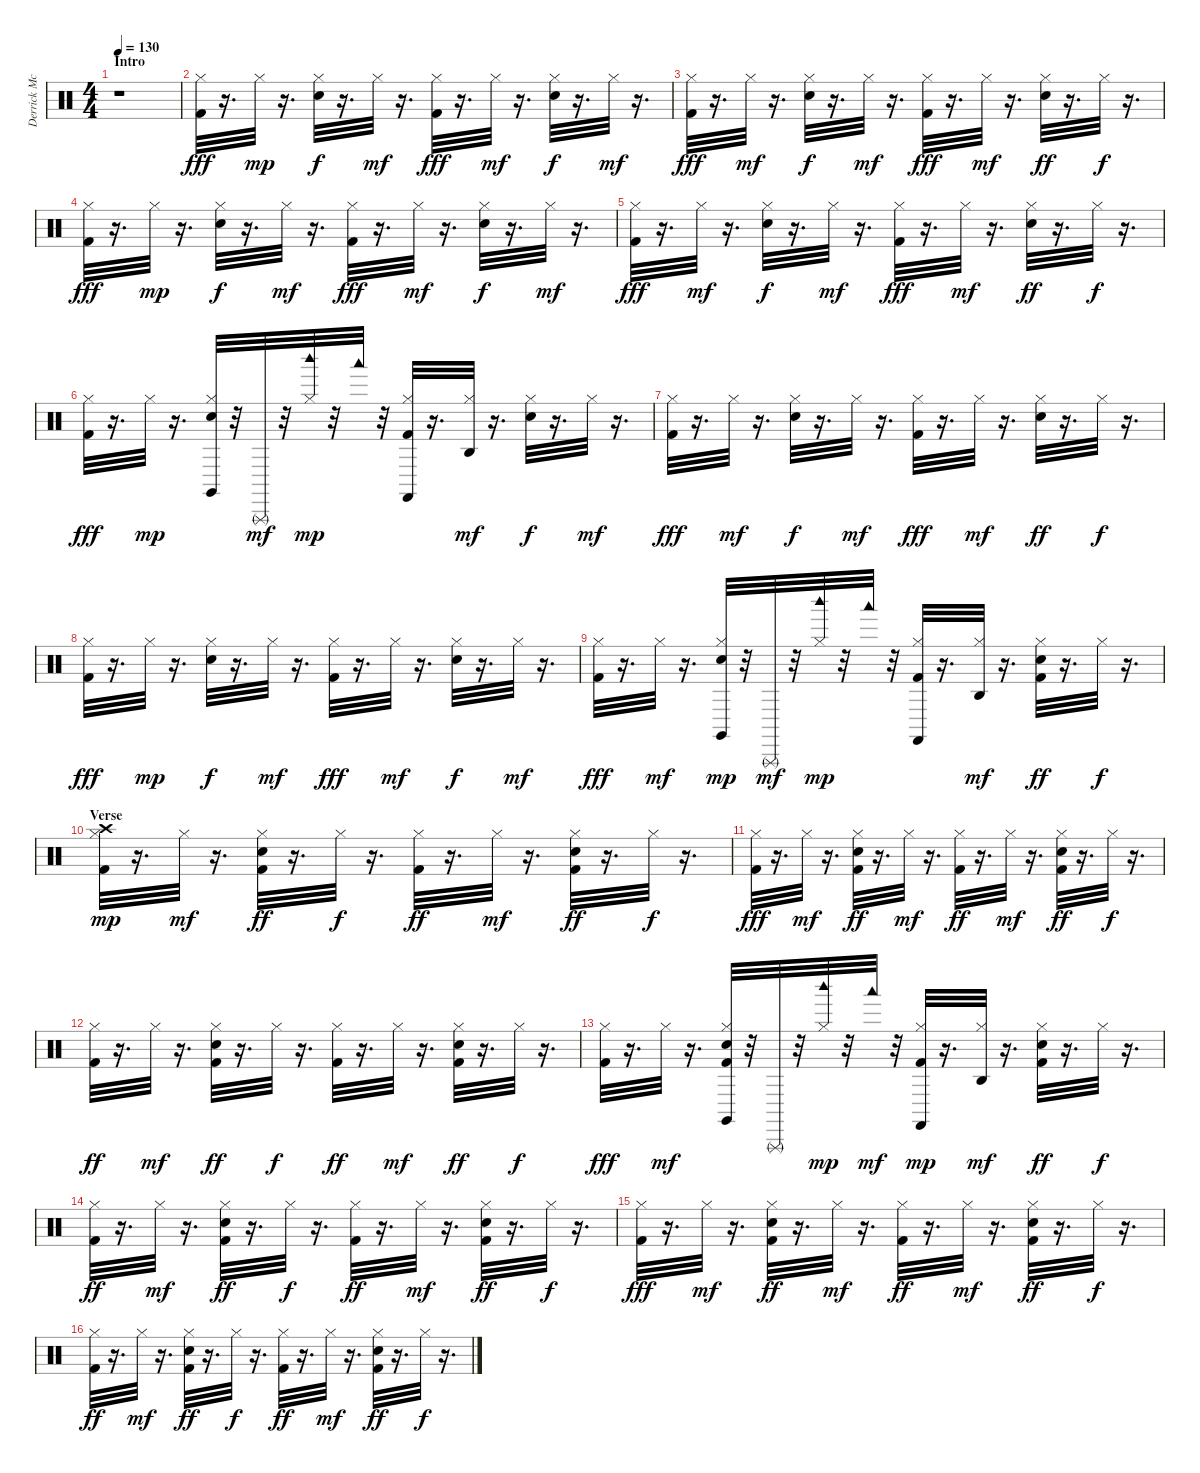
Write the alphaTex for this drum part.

\track ("Derrick McKenzie\\Sola Akingbola - Drums" "Derrick Mc") {instrument percussion}
\staff {score}
\articulation defaults
\ts (4 4)
\section ("" "Intro")
\tempo 130
\clef neutral
\ks c
r.1{dy fff} |
("Kick (hit) 2" "Hi-Hat (closed)").32 r.16{d} "Hi-Hat (closed)".32{dy mp} r.16{d} ("Electric Snare (hit)" "Hi-Hat (closed)").32{dy f} r.16{d} "Hi-Hat (closed)".32{dy mf} r.16{d} ("Kick (hit) 2" "Hi-Hat (closed)").32{dy fff} r.16{d} "Hi-Hat (closed)".32{dy mf} r.16{d} ("Electric Snare (hit)" "Hi-Hat (closed)").32{dy f} r.16{d} "Hi-Hat (closed)".32{dy mf} r.16{d} |
("Kick (hit) 2" "Hi-Hat (closed)").32{dy fff} r.16{d} "Hi-Hat (closed)".32{dy mf} r.16{d} ("Electric Snare (hit)" "Hi-Hat (closed)").32{dy f} r.16{d} "Hi-Hat (closed)".32{dy mf} r.16{d} ("Kick (hit) 2" "Hi-Hat (closed)").32{dy fff} r.16{d} "Hi-Hat (closed)".32{dy mf} r.16{d} ("Electric Snare (hit)" "Hi-Hat (closed)").32{dy ff} r.16{d} "Hi-Hat (closed)".32{dy f} r.16{d} |
("Kick (hit) 2" "Hi-Hat (closed)").32{dy fff} r.16{d} "Hi-Hat (closed)".32{dy mp} r.16{d} ("Electric Snare (hit)" "Hi-Hat (closed)").32{dy f} r.16{d} "Hi-Hat (closed)".32{dy mf} r.16{d} ("Kick (hit) 2" "Hi-Hat (closed)").32{dy fff} r.16{d} "Hi-Hat (closed)".32{dy mf} r.16{d} ("Electric Snare (hit)" "Hi-Hat (closed)").32{dy f} r.16{d} "Hi-Hat (closed)".32{dy mf} r.16{d} |
("Kick (hit) 2" "Hi-Hat (closed)").32{dy fff} r.16{d} "Hi-Hat (closed)".32{dy mf} r.16{d} ("Electric Snare (hit)" "Hi-Hat (closed)").32{dy f} r.16{d} "Hi-Hat (closed)".32{dy mf} r.16{d} ("Kick (hit) 2" "Hi-Hat (closed)").32{dy fff} r.16{d} "Hi-Hat (closed)".32{dy mf} r.16{d} ("Electric Snare (hit)" "Hi-Hat (closed)").32{dy ff} r.16{d} "Hi-Hat (closed)".32{dy f} r.16{d} |
("Kick (hit) 2" "Hi-Hat (closed)").32{dy fff} r.16{d} "Hi-Hat (closed)".32{dy mp} r.16{d} ("Electric Snare (hit)" "Hi-Hat (closed)" "Claves (hit)").32 r.32 "Triangle (rnute)".32{dy mf} r.32 ("Hi-Hat (closed)" "Woodblock high (hit)").32{dy mp} r.32 "Woodblock low (hit)".32 r.32 ("Kick (hit) 2" "Hi-Hat (closed)" "Castanets (hit)").32 r.16{d} ("Hi-Hat (closed)" "Agogo high (hit)").32{dy mf} r.16{d} ("Electric Snare (hit)" "Hi-Hat (closed)").32{dy f} r.16{d} "Hi-Hat (closed)".32{dy mf} r.16{d} |
("Kick (hit) 2" "Hi-Hat (closed)").32{dy fff} r.16{d} "Hi-Hat (closed)".32{dy mf} r.16{d} ("Electric Snare (hit)" "Hi-Hat (closed)").32{dy f} r.16{d} "Hi-Hat (closed)".32{dy mf} r.16{d} ("Kick (hit) 2" "Hi-Hat (closed)").32{dy fff} r.16{d} "Hi-Hat (closed)".32{dy mf} r.16{d} ("Electric Snare (hit)" "Hi-Hat (closed)").32{dy ff} r.16{d} "Hi-Hat (closed)".32{dy f} r.16{d} |
("Kick (hit) 2" "Hi-Hat (closed)").32{dy fff} r.16{d} "Hi-Hat (closed)".32{dy mp} r.16{d} ("Electric Snare (hit)" "Hi-Hat (closed)").32{dy f} r.16{d} "Hi-Hat (closed)".32{dy mf} r.16{d} ("Kick (hit) 2" "Hi-Hat (closed)").32{dy fff} r.16{d} "Hi-Hat (closed)".32{dy mf} r.16{d} ("Electric Snare (hit)" "Hi-Hat (closed)").32{dy f} r.16{d} "Hi-Hat (closed)".32{dy mf} r.16{d} |
("Kick (hit) 2" "Hi-Hat (closed)").32{dy fff} r.16{d} "Hi-Hat (closed)".32{dy mf} r.16{d} ("Electric Snare (hit)" "Hi-Hat (closed)" "Claves (hit)").32{dy mp} r.32 "Triangle (rnute)".32{dy mf} r.32 ("Hi-Hat (closed)" "Woodblock high (hit)").32{dy mp} r.32 "Woodblock low (hit)".32 r.32 ("Kick (hit) 2" "Hi-Hat (closed)" "Castanets (hit)").32 r.16{d} ("Hi-Hat (closed)" "Agogo high (hit)").32{dy mf} r.16{d} ("Kick (hit) 2" "Electric Snare (hit)" "Hi-Hat (closed)").32{dy ff} r.16{d} "Hi-Hat (closed)".32{dy f} r.16{d} |
\section ("" "Verse")
("Kick (hit) 2" "Hi-Hat (closed)" "Crash high (hit)").32{dy mp} r.16{d} "Hi-Hat (closed)".32{dy mf} r.16{d} ("Kick (hit) 2" "Electric Snare (hit)" "Hi-Hat (closed)").32{dy ff} r.16{d} "Hi-Hat (closed)".32{dy f} r.16{d} ("Kick (hit) 2" "Hi-Hat (closed)").32{dy ff} r.16{d} "Hi-Hat (closed)".32{dy mf} r.16{d} ("Kick (hit) 2" "Electric Snare (hit)" "Hi-Hat (closed)").32{dy ff} r.16{d} "Hi-Hat (closed)".32{dy f} r.16{d} |
("Kick (hit) 2" "Hi-Hat (closed)").32{dy fff} r.16{d} "Hi-Hat (closed)".32{dy mf} r.16{d} ("Kick (hit) 2" "Electric Snare (hit)" "Hi-Hat (closed)").32{dy ff} r.16{d} "Hi-Hat (closed)".32{dy mf} r.16{d} ("Kick (hit) 2" "Hi-Hat (closed)").32{dy ff} r.16{d} "Hi-Hat (closed)".32{dy mf} r.16{d} ("Kick (hit) 2" "Electric Snare (hit)" "Hi-Hat (closed)").32{dy ff} r.16{d} "Hi-Hat (closed)".32{dy f} r.16{d} |
("Kick (hit) 2" "Hi-Hat (closed)").32{dy ff} r.16{d} "Hi-Hat (closed)".32{dy mf} r.16{d} ("Kick (hit) 2" "Electric Snare (hit)" "Hi-Hat (closed)").32{dy ff} r.16{d} "Hi-Hat (closed)".32{dy f} r.16{d} ("Kick (hit) 2" "Hi-Hat (closed)").32{dy ff} r.16{d} "Hi-Hat (closed)".32{dy mf} r.16{d} ("Kick (hit) 2" "Electric Snare (hit)" "Hi-Hat (closed)").32{dy ff} r.16{d} "Hi-Hat (closed)".32{dy f} r.16{d} |
("Kick (hit) 2" "Hi-Hat (closed)").32{dy fff} r.16{d} "Hi-Hat (closed)".32{dy mf} r.16{d} ("Kick (hit) 2" "Electric Snare (hit)" "Hi-Hat (closed)" "Claves (hit)").32 r.32 "Triangle (rnute)".32 r.32 ("Hi-Hat (closed)" "Woodblock high (hit)").32{dy mp} r.32 "Woodblock low (hit)".32{dy mf} r.32 ("Kick (hit) 2" "Hi-Hat (closed)" "Castanets (hit)").32{dy mp} r.16{d} ("Hi-Hat (closed)" "Agogo high (hit)").32{dy mf} r.16{d} ("Kick (hit) 2" "Electric Snare (hit)" "Hi-Hat (closed)").32{dy ff} r.16{d} "Hi-Hat (closed)".32{dy f} r.16{d} |
("Kick (hit) 2" "Hi-Hat (closed)").32{dy ff} r.16{d} "Hi-Hat (closed)".32{dy mf} r.16{d} ("Kick (hit) 2" "Electric Snare (hit)" "Hi-Hat (closed)").32{dy ff} r.16{d} "Hi-Hat (closed)".32{dy f} r.16{d} ("Kick (hit) 2" "Hi-Hat (closed)").32{dy ff} r.16{d} "Hi-Hat (closed)".32{dy mf} r.16{d} ("Kick (hit) 2" "Electric Snare (hit)" "Hi-Hat (closed)").32{dy ff} r.16{d} "Hi-Hat (closed)".32{dy f} r.16{d} |
("Kick (hit) 2" "Hi-Hat (closed)").32{dy fff} r.16{d} "Hi-Hat (closed)".32{dy mf} r.16{d} ("Kick (hit) 2" "Electric Snare (hit)" "Hi-Hat (closed)").32{dy ff} r.16{d} "Hi-Hat (closed)".32{dy mf} r.16{d} ("Kick (hit) 2" "Hi-Hat (closed)").32{dy ff} r.16{d} "Hi-Hat (closed)".32{dy mf} r.16{d} ("Kick (hit) 2" "Electric Snare (hit)" "Hi-Hat (closed)").32{dy ff} r.16{d} "Hi-Hat (closed)".32{dy f} r.16{d} |
("Kick (hit) 2" "Hi-Hat (closed)").32{dy ff} r.16{d} "Hi-Hat (closed)".32{dy mf} r.16{d} ("Kick (hit) 2" "Electric Snare (hit)" "Hi-Hat (closed)").32{dy ff} r.16{d} "Hi-Hat (closed)".32{dy f} r.16{d} ("Kick (hit) 2" "Hi-Hat (closed)").32{dy ff} r.16{d} "Hi-Hat (closed)".32{dy mf} r.16{d} ("Kick (hit) 2" "Electric Snare (hit)" "Hi-Hat (closed)").32{dy ff} r.16{d} "Hi-Hat (closed)".32{dy f} r.16{d}
